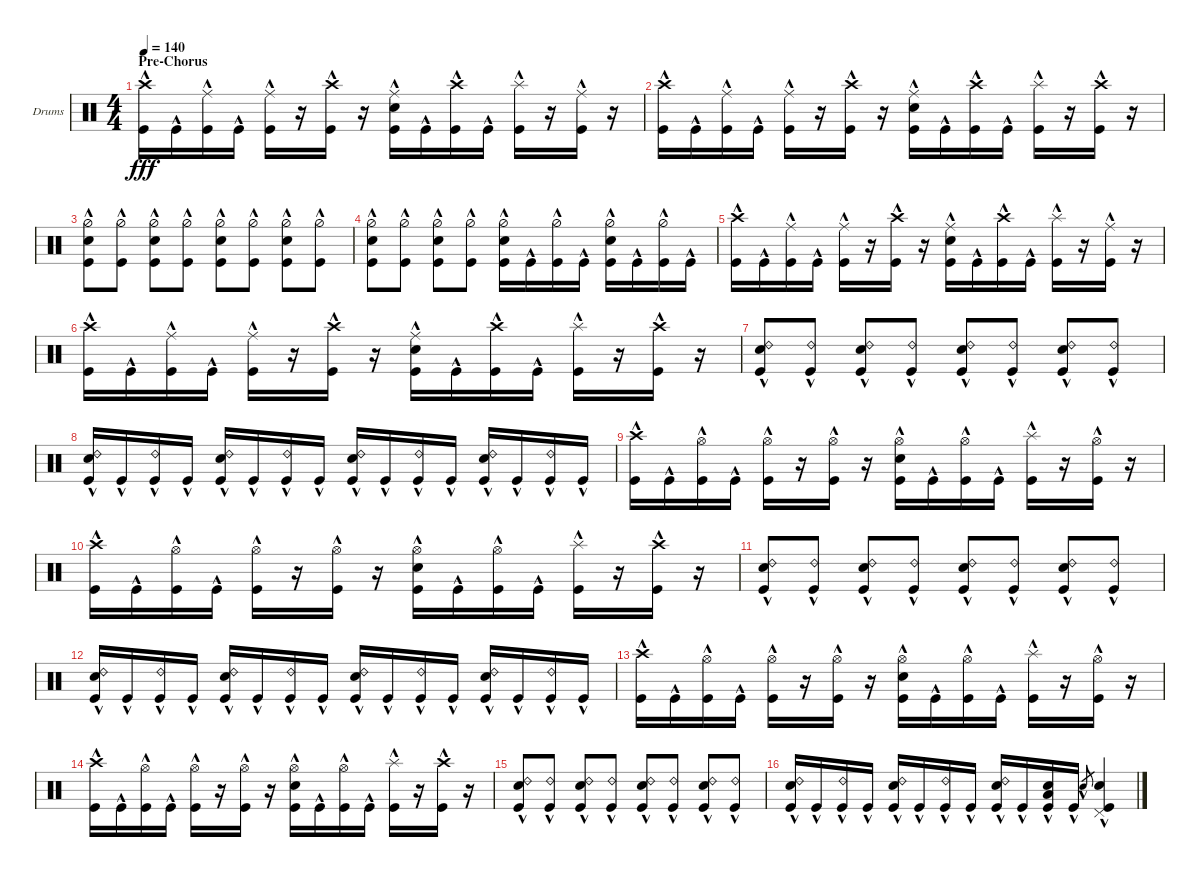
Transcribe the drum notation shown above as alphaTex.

\bracketExtendMode groupsimilarinstruments
\firstSystemTrackNameOrientation horizontal
\otherSystemsTrackNameOrientation horizontal
\track ("BigMc" "Drums") {instrument percussion}
\staff {score}
\articulation defaults
\ts (4 4)
\section ("" "Pre-Chorus")
\tempo 140
\clef neutral
\ks c
("Kick (hit)"{hac} "Crash high (hit)"{hac}).16{dy fff} "Kick (hit)"{hac}.16 ("Kick (hit)"{hac} "Ride (middle)"{hac}).16 "Kick (hit)"{hac}.16 ("Kick (hit)"{hac} "Ride (middle)"{hac}).16 r.16 ("Kick (hit)"{hac} "Crash high (hit)"{hac}).16 r.16 ("Kick (hit)"{hac} "Snare (hit) 2"{hac} "Ride (middle)"{hac}).16 "Kick (hit)"{hac}.16 ("Kick (hit)"{hac} "Crash high (hit)"{hac}).16 "Kick (hit)"{hac}.16 ("Kick (hit)"{hac} "Splash (hit)"{hac}).16 r.16 ("Kick (hit)"{hac} "Ride (middle)"{hac}).16 r.16 |
("Kick (hit)"{hac} "Crash high (hit)"{hac}).16 "Kick (hit)"{hac}.16 ("Kick (hit)"{hac} "Ride (middle)"{hac}).16 "Kick (hit)"{hac}.16 ("Kick (hit)"{hac} "Ride (middle)"{hac}).16 r.16 ("Kick (hit)"{hac} "Crash high (hit)"{hac}).16 r.16 ("Kick (hit)"{hac} "Snare (hit) 2"{hac} "Ride (middle)"{hac}).16 "Kick (hit)"{hac}.16 ("Kick (hit)"{hac} "Crash high (hit)"{hac}).16 "Kick (hit)"{hac}.16 ("Kick (hit)"{hac} "Splash (hit)"{hac}).16 r.16 ("Kick (hit)"{hac} "Crash high (hit)"{hac}).16 r.16 |
("Kick (hit)"{hac} "Hi-Hat (half)"{hac} "Snare (hit) 2"{hac}).8 ("Kick (hit)"{hac} "Hi-Hat (half)"{hac}).8 ("Kick (hit)"{hac} "Hi-Hat (half)"{hac} "Snare (hit) 2"{hac}).8 ("Kick (hit)"{hac} "Hi-Hat (half)"{hac}).8 ("Kick (hit)"{hac} "Hi-Hat (half)"{hac} "Snare (hit) 2"{hac}).8 ("Kick (hit)"{hac} "Hi-Hat (half)"{hac}).8 ("Kick (hit)"{hac} "Hi-Hat (half)"{hac} "Snare (hit) 2"{hac}).8 ("Kick (hit)"{hac} "Hi-Hat (half)"{hac}).8 |
("Kick (hit)"{hac} "Hi-Hat (half)"{hac} "Snare (hit) 2"{hac}).8 ("Kick (hit)"{hac} "Hi-Hat (half)"{hac}).8 ("Kick (hit)"{hac} "Hi-Hat (half)"{hac} "Snare (hit) 2"{hac}).8 ("Kick (hit)"{hac} "Hi-Hat (half)"{hac}).8 ("Kick (hit)"{hac} "Hi-Hat (half)"{hac} "Snare (hit) 2"{hac}).16 "Kick (hit)"{hac}.16 ("Kick (hit)"{hac} "Hi-Hat (half)"{hac}).16 "Kick (hit)"{hac}.16 ("Kick (hit)"{hac} "Hi-Hat (half)"{hac} "Snare (hit) 2"{hac}).16 "Kick (hit)"{hac}.16 ("Kick (hit)"{hac} "Hi-Hat (half)"{hac}).16 "Kick (hit)"{hac}.16 |
("Kick (hit)"{hac} "Crash high (hit)"{hac}).16 "Kick (hit)"{hac}.16 ("Kick (hit)"{hac} "Ride (middle)"{hac}).16 "Kick (hit)"{hac}.16 ("Kick (hit)"{hac} "Ride (middle)"{hac}).16 r.16 ("Kick (hit)"{hac} "Crash high (hit)"{hac}).16 r.16 ("Kick (hit)"{hac} "Snare (hit) 2"{hac} "Ride (middle)"{hac}).16 "Kick (hit)"{hac}.16 ("Kick (hit)"{hac} "Crash high (hit)"{hac}).16 "Kick (hit)"{hac}.16 ("Kick (hit)"{hac} "Splash (hit)"{hac}).16 r.16 ("Kick (hit)"{hac} "Ride (middle)"{hac}).16 r.16 |
("Kick (hit)"{hac} "Crash high (hit)"{hac}).16 "Kick (hit)"{hac}.16 ("Kick (hit)"{hac} "Ride (middle)"{hac}).16 "Kick (hit)"{hac}.16 ("Kick (hit)"{hac} "Ride (middle)"{hac}).16 r.16 ("Kick (hit)"{hac} "Crash high (hit)"{hac}).16 r.16 ("Kick (hit)"{hac} "Snare (hit) 2"{hac} "Ride (middle)"{hac}).16 "Kick (hit)"{hac}.16 ("Kick (hit)"{hac} "Crash high (hit)"{hac}).16 "Kick (hit)"{hac}.16 ("Kick (hit)"{hac} "Splash (hit)"{hac}).16 r.16 ("Kick (hit)"{hac} "Crash high (hit)"{hac}).16 r.16 |
("Kick (hit)"{hac} "Snare (hit) 2"{hac} "Ride (bell) 2"{hac}).8 ("Kick (hit)"{hac} "Ride (bell) 2"{hac}).8 ("Kick (hit)"{hac} "Snare (hit) 2"{hac} "Ride (bell) 2"{hac}).8 ("Kick (hit)"{hac} "Ride (bell) 2"{hac}).8 ("Kick (hit)"{hac} "Snare (hit) 2"{hac} "Ride (bell) 2"{hac}).8 ("Kick (hit)"{hac} "Ride (bell) 2"{hac}).8 ("Kick (hit)"{hac} "Snare (hit) 2"{hac} "Ride (bell) 2"{hac}).8 ("Kick (hit)"{hac} "Ride (bell) 2"{hac}).8 |
("Kick (hit)"{hac} "Snare (hit) 2"{hac} "Ride (bell) 2"{hac}).16 "Kick (hit)"{hac}.16 ("Kick (hit)"{hac} "Ride (bell) 2"{hac}).16 "Kick (hit)"{hac}.16 ("Kick (hit)"{hac} "Snare (hit) 2"{hac} "Ride (bell) 2"{hac}).16 "Kick (hit)"{hac}.16 ("Kick (hit)"{hac} "Ride (bell) 2"{hac}).16 "Kick (hit)"{hac}.16 ("Kick (hit)"{hac} "Snare (hit) 2"{hac} "Ride (bell) 2"{hac}).16 "Kick (hit)"{hac}.16 ("Kick (hit)"{hac} "Ride (bell) 2"{hac}).16 "Kick (hit)"{hac}.16 ("Kick (hit)"{hac} "Snare (hit) 2"{hac} "Ride (bell) 2"{hac}).16 "Kick (hit)"{hac}.16 ("Kick (hit)"{hac} "Ride (bell) 2"{hac}).16 "Kick (hit)"{hac}.16 |
("Kick (hit)"{hac} "Crash high (hit)"{hac}).16 "Kick (hit)"{hac}.16 ("Kick (hit)"{hac} "Hi-Hat (open)"{hac}).16 "Kick (hit)"{hac}.16 ("Kick (hit)"{hac} "Hi-Hat (open)"{hac}).16 r.16 ("Kick (hit)"{hac} "Hi-Hat (open)"{hac}).16 r.16 ("Kick (hit)"{hac} "Snare (hit) 2"{hac} "Hi-Hat (open)"{hac}).16 "Kick (hit)"{hac}.16 ("Kick (hit)"{hac} "Hi-Hat (open)"{hac}).16 "Kick (hit)"{hac}.16 ("Kick (hit)"{hac} "Splash (hit)"{hac}).16 r.16 ("Kick (hit)"{hac} "Hi-Hat (open)"{hac}).16 r.16 |
("Kick (hit)"{hac} "Crash high (hit)"{hac}).16 "Kick (hit)"{hac}.16 ("Kick (hit)"{hac} "Hi-Hat (open)"{hac}).16 "Kick (hit)"{hac}.16 ("Kick (hit)"{hac} "Hi-Hat (open)"{hac}).16 r.16 ("Kick (hit)"{hac} "Hi-Hat (open)"{hac}).16 r.16 ("Kick (hit)"{hac} "Snare (hit) 2"{hac} "Hi-Hat (open)"{hac}).16 "Kick (hit)"{hac}.16 ("Kick (hit)"{hac} "Hi-Hat (open)"{hac}).16 "Kick (hit)"{hac}.16 ("Kick (hit)"{hac} "Splash (hit)"{hac}).16 r.16 ("Kick (hit)"{hac} "Crash high (hit)"{hac}).16 r.16 |
("Kick (hit)"{hac} "Snare (hit) 2"{hac} "Ride (bell) 2"{hac}).8 ("Kick (hit)"{hac} "Ride (bell) 2"{hac}).8 ("Kick (hit)"{hac} "Snare (hit) 2"{hac} "Ride (bell) 2"{hac}).8 ("Kick (hit)"{hac} "Ride (bell) 2"{hac}).8 ("Kick (hit)"{hac} "Snare (hit) 2"{hac} "Ride (bell) 2"{hac}).8 ("Kick (hit)"{hac} "Ride (bell) 2"{hac}).8 ("Kick (hit)"{hac} "Snare (hit) 2"{hac} "Ride (bell) 2"{hac}).8 ("Kick (hit)"{hac} "Ride (bell) 2"{hac}).8 |
("Kick (hit)"{hac} "Snare (hit) 2"{hac} "Ride (bell) 2"{hac}).16 "Kick (hit)"{hac}.16 ("Kick (hit)"{hac} "Ride (bell) 2"{hac}).16 "Kick (hit)"{hac}.16 ("Kick (hit)"{hac} "Snare (hit) 2"{hac} "Ride (bell) 2"{hac}).16 "Kick (hit)"{hac}.16 ("Kick (hit)"{hac} "Ride (bell) 2"{hac}).16 "Kick (hit)"{hac}.16 ("Kick (hit)"{hac} "Snare (hit) 2"{hac} "Ride (bell) 2"{hac}).16 "Kick (hit)"{hac}.16 ("Kick (hit)"{hac} "Ride (bell) 2"{hac}).16 "Kick (hit)"{hac}.16 ("Kick (hit)"{hac} "Snare (hit) 2"{hac} "Ride (bell) 2"{hac}).16 "Kick (hit)"{hac}.16 ("Kick (hit)"{hac} "Ride (bell) 2"{hac}).16 "Kick (hit)"{hac}.16 |
("Kick (hit)"{hac} "Crash high (hit)"{hac}).16 "Kick (hit)"{hac}.16 ("Kick (hit)"{hac} "Hi-Hat (open)"{hac}).16 "Kick (hit)"{hac}.16 ("Kick (hit)"{hac} "Hi-Hat (open)"{hac}).16 r.16 ("Kick (hit)"{hac} "Hi-Hat (open)"{hac}).16 r.16 ("Kick (hit)"{hac} "Snare (hit) 2"{hac} "Hi-Hat (open)"{hac}).16 "Kick (hit)"{hac}.16 ("Kick (hit)"{hac} "Hi-Hat (open)"{hac}).16 "Kick (hit)"{hac}.16 ("Kick (hit)"{hac} "Splash (hit)"{hac}).16 r.16 ("Kick (hit)"{hac} "Hi-Hat (open)"{hac}).16 r.16 |
("Kick (hit)"{hac} "Crash high (hit)"{hac}).16 "Kick (hit)"{hac}.16 ("Kick (hit)"{hac} "Hi-Hat (open)"{hac}).16 "Kick (hit)"{hac}.16 ("Kick (hit)"{hac} "Hi-Hat (open)"{hac}).16 r.16 ("Kick (hit)"{hac} "Hi-Hat (open)"{hac}).16 r.16 ("Kick (hit)"{hac} "Snare (hit) 2"{hac} "Hi-Hat (open)"{hac}).16 "Kick (hit)"{hac}.16 ("Kick (hit)"{hac} "Hi-Hat (open)"{hac}).16 "Kick (hit)"{hac}.16 ("Kick (hit)"{hac} "Splash (hit)"{hac}).16 r.16 ("Kick (hit)"{hac} "Crash high (hit)"{hac}).16 r.16 |
("Kick (hit)"{hac} "Snare (hit) 2"{hac} "Ride (bell) 2"{hac}).8 ("Kick (hit)"{hac} "Ride (bell) 2"{hac}).8 ("Kick (hit)"{hac} "Snare (hit) 2"{hac} "Ride (bell) 2"{hac}).8 ("Kick (hit)"{hac} "Ride (bell) 2"{hac}).8 ("Kick (hit)"{hac} "Snare (hit) 2"{hac} "Ride (bell) 2"{hac}).8 ("Kick (hit)"{hac} "Ride (bell) 2"{hac}).8 ("Kick (hit)"{hac} "Snare (hit) 2"{hac} "Ride (bell) 2"{hac}).8 ("Kick (hit)"{hac} "Ride (bell) 2"{hac}).8 |
("Kick (hit)"{hac} "Snare (hit) 2"{hac} "Ride (bell) 2"{hac}).16 "Kick (hit)"{hac}.16 ("Kick (hit)"{hac} "Ride (bell) 2"{hac}).16 "Kick (hit)"{hac}.16 ("Kick (hit)"{hac} "Snare (hit) 2"{hac} "Ride (bell) 2"{hac}).16 "Kick (hit)"{hac}.16 ("Kick (hit)"{hac} "Ride (bell) 2"{hac}).16 "Kick (hit)"{hac}.16 ("Kick (hit)"{hac} "Snare (hit) 2"{hac} "Ride (bell) 2"{hac}).16 "Kick (hit)"{hac}.16 ("Kick (hit)"{hac} "Low Tom (hit)"{hac} "Snare (hit) 2"{hac}).16 "Kick (hit)"{hac}.16 "Snare (hit) 2"{hac}.8{gr} ("Snare (hit) 2"{hac} "Kick (hit)"{hac} "Pedal Hi-Hat (hit)"{hac}).4
